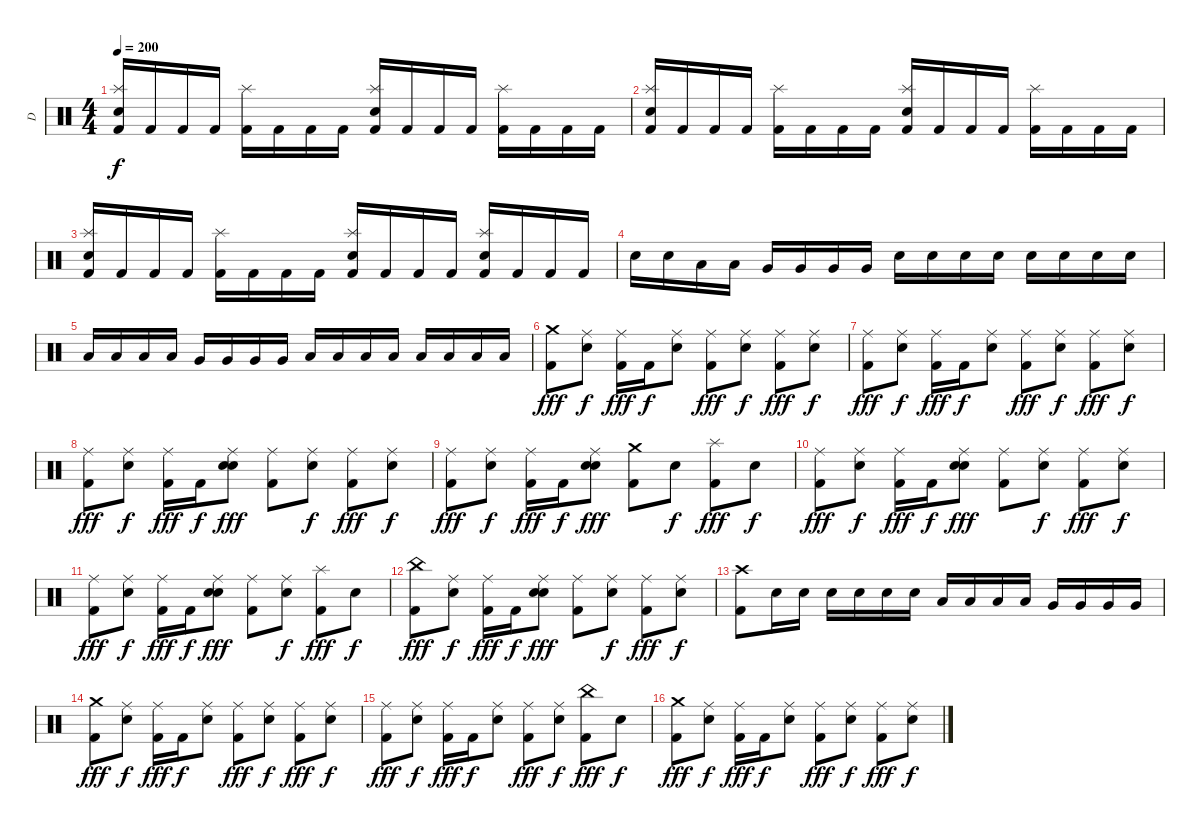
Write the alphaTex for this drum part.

\track ("D" "D") {instrument percussion}
\staff {score}
\articulation defaults
\ts (4 4)
\tempo 200
\clef neutral
\ks c
("Electric Snare (hit)" "Splash (hit)" "Kick (hit) 2").16{dy f} "Kick (hit) 2".16 "Kick (hit) 2".16 "Kick (hit) 2".16 ("Splash (hit)" "Kick (hit) 2").16 "Kick (hit) 2".16 "Kick (hit) 2".16 "Kick (hit) 2".16 ("Splash (hit)" "Electric Snare (hit)" "Kick (hit) 2").16 "Kick (hit) 2".16 "Kick (hit) 2".16 "Kick (hit) 2".16 ("Splash (hit)" "Kick (hit) 2").16 "Kick (hit) 2".16 "Kick (hit) 2".16 "Kick (hit) 2".16 |
("Electric Snare (hit)" "Splash (hit)" "Kick (hit) 2").16 "Kick (hit) 2".16 "Kick (hit) 2".16 "Kick (hit) 2".16 ("Splash (hit)" "Kick (hit) 2").16 "Kick (hit) 2".16 "Kick (hit) 2".16 "Kick (hit) 2".16 ("Splash (hit)" "Electric Snare (hit)" "Kick (hit) 2").16 "Kick (hit) 2".16 "Kick (hit) 2".16 "Kick (hit) 2".16 ("Splash (hit)" "Kick (hit) 2").16 "Kick (hit) 2".16 "Kick (hit) 2".16 "Kick (hit) 2".16 |
("Electric Snare (hit)" "Splash (hit)" "Kick (hit) 2").16 "Kick (hit) 2".16 "Kick (hit) 2".16 "Kick (hit) 2".16 ("Splash (hit)" "Kick (hit) 2").16 "Kick (hit) 2".16 "Kick (hit) 2".16 "Kick (hit) 2".16 ("Electric Snare (hit)" "Splash (hit)" "Kick (hit) 2").16 "Kick (hit) 2".16 "Kick (hit) 2".16 "Kick (hit) 2".16 ("Splash (hit)" "Electric Snare (hit)" "Kick (hit) 2").16 "Kick (hit) 2".16 "Kick (hit) 2".16 "Kick (hit) 2".16 |
"Electric Snare (hit)".16 "Electric Snare (hit)".16 "Low Tom (hit)".16 "Low Tom (hit)".16 "Very Low Tom (hit)".16 "Very Low Tom (hit)".16 "Very Low Tom (hit)".16 "Very Low Tom (hit)".16 "Electric Snare (hit)".16 "Electric Snare (hit)".16 "Electric Snare (hit)".16 "Electric Snare (hit)".16 "Electric Snare (hit)".16 "Electric Snare (hit)".16 "Electric Snare (hit)".16 "Electric Snare (hit)".16 |
"Low Tom (hit)".16 "Low Tom (hit)".16 "Low Tom (hit)".16 "Low Tom (hit)".16 "Very Low Tom (hit)".16 "Very Low Tom (hit)".16 "Very Low Tom (hit)".16 "Very Low Tom (hit)".16 "Low Floor Tom (hit)".16 "Low Floor Tom (hit)".16 "Low Floor Tom (hit)".16 "Low Floor Tom (hit)".16 "Low Floor Tom (hit)".16 "Low Floor Tom (hit)".16 "Low Floor Tom (hit)".16 "Low Floor Tom (hit)".16 |
("Crash medium (hit)" "Kick (hit) 2").8{dy fff} ("Ride (middle)" "Electric Snare (hit)").8{dy f} ("Ride (middle)" "Kick (hit) 2").16{dy fff} "Kick (hit) 2".16{dy f} ("Ride (middle)" "Electric Snare (hit)").8 ("Ride (middle)" "Kick (hit) 2").8{dy fff} ("Ride (middle)" "Electric Snare (hit)").8{dy f} ("Ride (middle)" "Kick (hit) 2").8{dy fff} ("Ride (middle)" "Electric Snare (hit)").8{dy f} |
("Ride (middle)" "Kick (hit) 2").8{dy fff} ("Ride (middle)" "Electric Snare (hit)").8{dy f} ("Ride (middle)" "Kick (hit) 2").16{dy fff} "Kick (hit) 2".16{dy f} ("Ride (middle)" "Electric Snare (hit)").8 ("Ride (middle)" "Kick (hit) 2").8{dy fff} ("Ride (middle)" "Electric Snare (hit)").8{dy f} ("Ride (middle)" "Kick (hit) 2").8{dy fff} ("Ride (middle)" "Electric Snare (hit)").8{dy f} |
("Ride (middle)" "Kick (hit) 2").8{dy fff} ("Ride (middle)" "Electric Snare (hit)").8{dy f} ("Ride (middle)" "Kick (hit) 2").16{dy fff} "Kick (hit) 2".16{dy f} ("Ride (middle)" "Electric Snare (hit)" "Electric Snare (hit)").8{dy fff} ("Ride (middle)" "Kick (hit) 2").8 ("Ride (middle)" "Electric Snare (hit)").8{dy f} ("Ride (middle)" "Kick (hit) 2").8{dy fff} ("Ride (middle)" "Electric Snare (hit)").8{dy f} |
("Ride (middle)" "Kick (hit) 2").8{dy fff} ("Ride (middle)" "Electric Snare (hit)").8{dy f} ("Ride (middle)" "Kick (hit) 2").16{dy fff} "Kick (hit) 2".16{dy f} ("Ride (middle)" "Electric Snare (hit)" "Electric Snare (hit)").8{dy fff} ("Crash medium (hit)" "Kick (hit) 2").8 "Electric Snare (hit)".8{dy f} ("Splash (hit)" "Kick (hit) 2").8{dy fff} "Electric Snare (hit)".8{dy f} |
("Ride (middle)" "Kick (hit) 2").8{dy fff} ("Ride (middle)" "Electric Snare (hit)").8{dy f} ("Ride (middle)" "Kick (hit) 2").16{dy fff} "Kick (hit) 2".16{dy f} ("Ride (middle)" "Electric Snare (hit)" "Electric Snare (hit)").8{dy fff} ("Ride (middle)" "Kick (hit) 2").8 ("Ride (middle)" "Electric Snare (hit)").8{dy f} ("Ride (middle)" "Kick (hit) 2").8{dy fff} ("Ride (middle)" "Electric Snare (hit)").8{dy f} |
("Ride (middle)" "Kick (hit) 2").8{dy fff} ("Ride (middle)" "Electric Snare (hit)").8{dy f} ("Ride (middle)" "Kick (hit) 2").16{dy fff} "Kick (hit) 2".16{dy f} ("Ride (middle)" "Electric Snare (hit)" "Electric Snare (hit)").8{dy fff} ("Ride (middle)" "Kick (hit) 2").8 ("Ride (middle)" "Electric Snare (hit)").8{dy f} ("Splash (hit)" "Kick (hit) 2").8{dy fff} "Electric Snare (hit)".8{dy f} |
("China (hit)" "Kick (hit) 2").8{dy fff} ("Ride (middle)" "Electric Snare (hit)").8{dy f} ("Ride (middle)" "Kick (hit) 2").16{dy fff} "Kick (hit) 2".16{dy f} ("Ride (middle)" "Electric Snare (hit)" "Electric Snare (hit)").8{dy fff} ("Ride (middle)" "Kick (hit) 2").8 ("Ride (middle)" "Electric Snare (hit)").8{dy f} ("Ride (middle)" "Kick (hit) 2").8{dy fff} ("Ride (middle)" "Electric Snare (hit)").8{dy f} |
("Crash high (hit)" "Kick (hit) 2").8 "Electric Snare (hit)".16 "Electric Snare (hit)".16 "Electric Snare (hit)".16 "Electric Snare (hit)".16 "Electric Snare (hit)".16 "Electric Snare (hit)".16 "Low Tom (hit)".16 "Low Tom (hit)".16 "Low Tom (hit)".16 "Low Tom (hit)".16 "Very Low Tom (hit)".16 "Very Low Tom (hit)".16 "Very Low Tom (hit)".16 "Very Low Tom (hit)".16 |
("Crash medium (hit)" "Kick (hit) 2").8{dy fff} ("Ride (middle)" "Electric Snare (hit)").8{dy f} ("Ride (middle)" "Kick (hit) 2").16{dy fff} "Kick (hit) 2".16{dy f} ("Ride (middle)" "Electric Snare (hit)").8 ("Ride (middle)" "Kick (hit) 2").8{dy fff} ("Ride (middle)" "Electric Snare (hit)").8{dy f} ("Ride (middle)" "Kick (hit) 2").8{dy fff} ("Ride (middle)" "Electric Snare (hit)").8{dy f} |
("Ride (middle)" "Kick (hit) 2").8{dy fff} ("Ride (middle)" "Electric Snare (hit)").8{dy f} ("Ride (middle)" "Kick (hit) 2").16{dy fff} "Kick (hit) 2".16{dy f} ("Ride (middle)" "Electric Snare (hit)").8 ("Ride (middle)" "Kick (hit) 2").8{dy fff} ("Ride (middle)" "Electric Snare (hit)").8{dy f} ("China (hit)" "Kick (hit) 2").8{dy fff} "Electric Snare (hit)".8{dy f} |
("Crash medium (hit)" "Kick (hit) 2").8{dy fff} ("Ride (middle)" "Electric Snare (hit)").8{dy f} ("Ride (middle)" "Kick (hit) 2").16{dy fff} "Kick (hit) 2".16{dy f} ("Ride (middle)" "Electric Snare (hit)").8 ("Ride (middle)" "Kick (hit) 2").8{dy fff} ("Ride (middle)" "Electric Snare (hit)").8{dy f} ("Ride (middle)" "Kick (hit) 2").8{dy fff} ("Ride (middle)" "Electric Snare (hit)").8{dy f}
